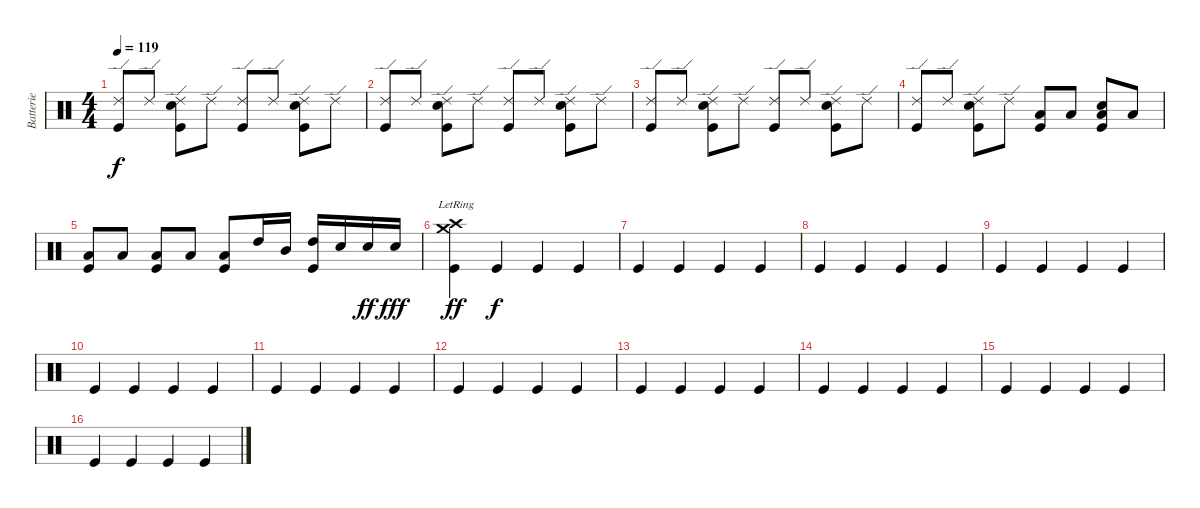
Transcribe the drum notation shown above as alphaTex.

\track ("Batterie" "Batterie") {instrument percussion}
\staff {score}
\articulation defaults
\ts (4 4)
\tempo 119
\clef neutral
\ks c
("Ride (edge) 2" "Kick (hit)").8{dy f} "Ride (edge) 2".8 ("Ride (edge) 2" "Kick (hit)" "Electric Snare (hit)").8 "Ride (edge) 2".8 ("Ride (edge) 2" "Kick (hit)").8 "Ride (edge) 2".8 ("Ride (edge) 2" "Kick (hit)" "Electric Snare (hit)").8 "Ride (edge) 2".8 |
("Ride (edge) 2" "Kick (hit)").8 "Ride (edge) 2".8 ("Ride (edge) 2" "Kick (hit)" "Electric Snare (hit)").8 "Ride (edge) 2".8 ("Ride (edge) 2" "Kick (hit)").8 "Ride (edge) 2".8 ("Ride (edge) 2" "Kick (hit)" "Electric Snare (hit)").8 "Ride (edge) 2".8 |
("Ride (edge) 2" "Kick (hit)").8 "Ride (edge) 2".8 ("Ride (edge) 2" "Kick (hit)" "Electric Snare (hit)").8 "Ride (edge) 2".8 ("Ride (edge) 2" "Kick (hit)").8 "Ride (edge) 2".8 ("Ride (edge) 2" "Kick (hit)" "Electric Snare (hit)").8 "Ride (edge) 2".8 |
("Ride (edge) 2" "Kick (hit)").8 "Ride (edge) 2".8 ("Ride (edge) 2" "Kick (hit)" "Electric Snare (hit)").8 "Ride (edge) 2".8 ("Low Tom (hit)" "Kick (hit)").8 "Low Tom (hit)".8 ("Low Tom (hit)" "Kick (hit)" "Electric Snare (hit)").8 "Low Tom (hit)".8 |
("Low Tom (hit)" "Kick (hit)").8 "Low Tom (hit)".8 ("Low Tom (hit)" "Kick (hit)").8 "Low Tom (hit)".8 ("Low Tom (hit)" "Kick (hit)").8 "High Tom (hit)".16 "Mid Tom (hit)".16 ("High Tom (hit)" "Kick (hit)").16 "Electric Snare (hit)".16 "Electric Snare (hit)".16{dy ff} "Electric Snare (hit)".16{dy fff} |
("Crash medium (hit)"{lr} "Kick (hit)" "Crash high (hit)"{lr}).4{dy ff} "Kick (hit)".4{dy f} "Kick (hit)".4 "Kick (hit)".4 |
"Kick (hit)".4 "Kick (hit)".4 "Kick (hit)".4 "Kick (hit)".4 |
"Kick (hit)".4 "Kick (hit)".4 "Kick (hit)".4 "Kick (hit)".4 |
"Kick (hit)".4 "Kick (hit)".4 "Kick (hit)".4 "Kick (hit)".4 |
"Kick (hit)".4 "Kick (hit)".4 "Kick (hit)".4 "Kick (hit)".4 |
"Kick (hit)".4 "Kick (hit)".4 "Kick (hit)".4 "Kick (hit)".4 |
"Kick (hit)".4 "Kick (hit)".4 "Kick (hit)".4 "Kick (hit)".4 |
"Kick (hit)".4 "Kick (hit)".4 "Kick (hit)".4 "Kick (hit)".4 |
"Kick (hit)".4 "Kick (hit)".4 "Kick (hit)".4 "Kick (hit)".4 |
"Kick (hit)".4 "Kick (hit)".4 "Kick (hit)".4 "Kick (hit)".4 |
"Kick (hit)".4 "Kick (hit)".4 "Kick (hit)".4 "Kick (hit)".4
